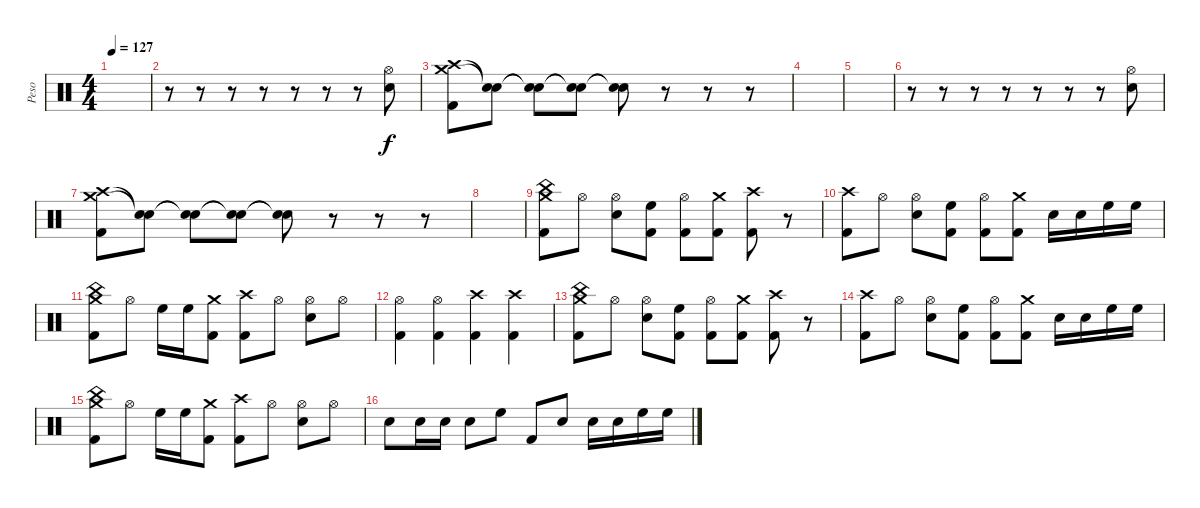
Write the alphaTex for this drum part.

\track ("Peso" "Peso") {instrument percussion}
\staff {score}
\articulation defaults
\ts (4 4)
\tempo 127
\clef neutral
\ks c
|
r.8 r.8 r.8 r.8 r.8 r.8 r.8 ("Hi-Hat (open)" "Snare (hit) 2").8 |
("Crash high (hit)" "Crash medium (hit)" "Kick (hit) 2").8 ("Snare (hit)"{t} "Snare (hit)"{t}).8 ("Snare (hit)"{t} "Snare (hit)"{t}).8 ("Snare (hit)"{t} "Snare (hit)"{t}).8 ("Snare (hit)"{t} "Snare (hit)"{t}).8 r.8 r.8 r.8 |
|
|
r.8 r.8 r.8 r.8 r.8 r.8 r.8 ("Hi-Hat (open)" "Snare (hit) 2").8 |
("Crash high (hit)" "Crash medium (hit)" "Kick (hit) 2").8 ("Snare (hit)"{t} "Snare (hit)"{t}).8 ("Snare (hit)"{t} "Snare (hit)"{t}).8 ("Snare (hit)"{t} "Snare (hit)"{t}).8 ("Snare (hit)"{t} "Snare (hit)"{t}).8 r.8 r.8 r.8 |
|
("China (hit)" "Crash medium (hit)" "Kick (hit) 2").8 "Hi-Hat (open)".8 ("Hi-Hat (open)" "Snare (hit) 2").8 ("High Floor Tom (hit)" "Kick (hit) 2").8 ("Hi-Hat (open)" "Kick (hit) 2").8 ("Crash medium (hit)" "Kick (hit) 2").8 ("Crash high (hit)" "Kick (hit) 2").8 r.8 |
("Crash high (hit)" "Kick (hit) 2").8 "Hi-Hat (open)".8 ("Hi-Hat (open)" "Snare (hit) 2").8 ("High Floor Tom (hit)" "Kick (hit) 2").8 ("Hi-Hat (open)" "Kick (hit) 2").8 ("Crash medium (hit)" "Kick (hit) 2").8 "Snare (hit) 2".16 "Snare (hit) 2".16 "High Floor Tom (hit)".16 "High Floor Tom (hit)".16 |
("China (hit)" "Crash medium (hit)" "Kick (hit) 2").8 "Hi-Hat (open)".8 "High Floor Tom (hit)".16 "High Floor Tom (hit)".16 ("Crash medium (hit)" "Kick (hit) 2").8 ("Crash high (hit)" "Kick (hit) 2").8 "Hi-Hat (open)".8 ("Hi-Hat (open)" "Snare (hit) 2").8 "Hi-Hat (open)".8 |
("Hi-Hat (open)" "Kick (hit) 2").4 ("Hi-Hat (open)" "Kick (hit) 2").4 ("Crash high (hit)" "Kick (hit) 2").4 ("Crash high (hit)" "Kick (hit) 2").4 |
("China (hit)" "Crash medium (hit)" "Kick (hit) 2").8 "Hi-Hat (open)".8 ("Hi-Hat (open)" "Snare (hit) 2").8 ("High Floor Tom (hit)" "Kick (hit) 2").8 ("Hi-Hat (open)" "Kick (hit) 2").8 ("Crash medium (hit)" "Kick (hit) 2").8 ("Crash high (hit)" "Kick (hit) 2").8 r.8 |
("Crash high (hit)" "Kick (hit) 2").8 "Hi-Hat (open)".8 ("Hi-Hat (open)" "Snare (hit) 2").8 ("High Floor Tom (hit)" "Kick (hit) 2").8 ("Hi-Hat (open)" "Kick (hit) 2").8 ("Crash medium (hit)" "Kick (hit) 2").8 "Snare (hit) 2".16 "Snare (hit) 2".16 "High Floor Tom (hit)".16 "High Floor Tom (hit)".16 |
("China (hit)" "Crash medium (hit)" "Kick (hit) 2").8 "Hi-Hat (open)".8 "High Floor Tom (hit)".16 "High Floor Tom (hit)".16 ("Crash medium (hit)" "Kick (hit) 2").8 ("Crash high (hit)" "Kick (hit) 2").8 "Hi-Hat (open)".8 ("Hi-Hat (open)" "Snare (hit) 2").8 "Hi-Hat (open)".8 |
"Snare (hit) 2".8 "Snare (hit) 2".16 "Snare (hit) 2".16 "Snare (hit) 2".8 "High Floor Tom (hit)".8 "Kick (hit) 2".8 "Snare (hit) 2".8 "Snare (hit) 2".16 "Snare (hit) 2".16 "High Floor Tom (hit)".16 "High Floor Tom (hit)".16
